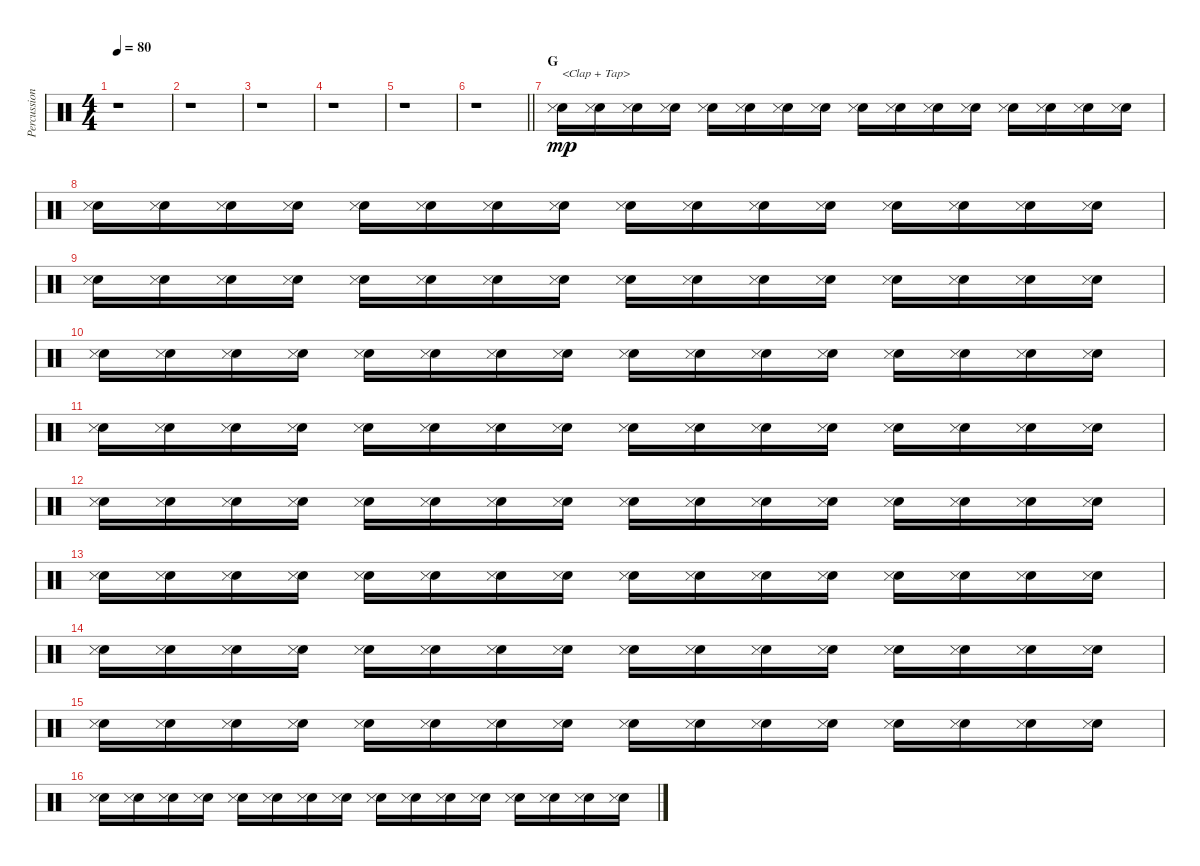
\track ("Percussion" "Percussion") {instrument percussion}
\staff {score}
\articulation defaults
\ts (4 4)
\tempo 80
\clef neutral
\ks c
r.1{dy mp} |
r.1 |
r.1 |
r.1 |
r.1 |
\barLineRight lightlight
r.1 |
\section ("" "G")
("Hand Clap (hit)" "Snare (side stick) 3").16{txt "<Clap + Tap>"} ("Hand Clap (hit)" "Snare (side stick) 3").16 ("Hand Clap (hit)" "Snare (side stick) 3").16 ("Hand Clap (hit)" "Snare (side stick) 3").16 ("Hand Clap (hit)" "Snare (side stick) 3").16 ("Hand Clap (hit)" "Snare (side stick) 3").16 ("Hand Clap (hit)" "Snare (side stick) 3").16 ("Hand Clap (hit)" "Snare (side stick) 3").16 ("Hand Clap (hit)" "Snare (side stick) 3").16 ("Hand Clap (hit)" "Snare (side stick) 3").16 ("Hand Clap (hit)" "Snare (side stick) 3").16 ("Hand Clap (hit)" "Snare (side stick) 3").16 ("Hand Clap (hit)" "Snare (side stick) 3").16 ("Hand Clap (hit)" "Snare (side stick) 3").16 ("Hand Clap (hit)" "Snare (side stick) 3").16 ("Hand Clap (hit)" "Snare (side stick) 3").16 |
("Hand Clap (hit)" "Snare (side stick) 3").16 ("Hand Clap (hit)" "Snare (side stick) 3").16 ("Hand Clap (hit)" "Snare (side stick) 3").16 ("Hand Clap (hit)" "Snare (side stick) 3").16 ("Hand Clap (hit)" "Snare (side stick) 3").16 ("Hand Clap (hit)" "Snare (side stick) 3").16 ("Hand Clap (hit)" "Snare (side stick) 3").16 ("Hand Clap (hit)" "Snare (side stick) 3").16 ("Hand Clap (hit)" "Snare (side stick) 3").16 ("Hand Clap (hit)" "Snare (side stick) 3").16 ("Hand Clap (hit)" "Snare (side stick) 3").16 ("Hand Clap (hit)" "Snare (side stick) 3").16 ("Hand Clap (hit)" "Snare (side stick) 3").16 ("Hand Clap (hit)" "Snare (side stick) 3").16 ("Hand Clap (hit)" "Snare (side stick) 3").16 ("Hand Clap (hit)" "Snare (side stick) 3").16 |
("Hand Clap (hit)" "Snare (side stick) 3").16 ("Hand Clap (hit)" "Snare (side stick) 3").16 ("Hand Clap (hit)" "Snare (side stick) 3").16 ("Hand Clap (hit)" "Snare (side stick) 3").16 ("Hand Clap (hit)" "Snare (side stick) 3").16 ("Hand Clap (hit)" "Snare (side stick) 3").16 ("Hand Clap (hit)" "Snare (side stick) 3").16 ("Hand Clap (hit)" "Snare (side stick) 3").16 ("Hand Clap (hit)" "Snare (side stick) 3").16 ("Hand Clap (hit)" "Snare (side stick) 3").16 ("Hand Clap (hit)" "Snare (side stick) 3").16 ("Hand Clap (hit)" "Snare (side stick) 3").16 ("Hand Clap (hit)" "Snare (side stick) 3").16 ("Hand Clap (hit)" "Snare (side stick) 3").16 ("Hand Clap (hit)" "Snare (side stick) 3").16 ("Hand Clap (hit)" "Snare (side stick) 3").16 |
("Hand Clap (hit)" "Snare (side stick) 3").16 ("Hand Clap (hit)" "Snare (side stick) 3").16 ("Hand Clap (hit)" "Snare (side stick) 3").16 ("Hand Clap (hit)" "Snare (side stick) 3").16 ("Hand Clap (hit)" "Snare (side stick) 3").16 ("Hand Clap (hit)" "Snare (side stick) 3").16 ("Hand Clap (hit)" "Snare (side stick) 3").16 ("Hand Clap (hit)" "Snare (side stick) 3").16 ("Hand Clap (hit)" "Snare (side stick) 3").16 ("Hand Clap (hit)" "Snare (side stick) 3").16 ("Hand Clap (hit)" "Snare (side stick) 3").16 ("Hand Clap (hit)" "Snare (side stick) 3").16 ("Hand Clap (hit)" "Snare (side stick) 3").16 ("Hand Clap (hit)" "Snare (side stick) 3").16 ("Hand Clap (hit)" "Snare (side stick) 3").16 ("Hand Clap (hit)" "Snare (side stick) 3").16 |
("Hand Clap (hit)" "Snare (side stick) 3").16 ("Hand Clap (hit)" "Snare (side stick) 3").16 ("Hand Clap (hit)" "Snare (side stick) 3").16 ("Hand Clap (hit)" "Snare (side stick) 3").16 ("Hand Clap (hit)" "Snare (side stick) 3").16 ("Hand Clap (hit)" "Snare (side stick) 3").16 ("Hand Clap (hit)" "Snare (side stick) 3").16 ("Hand Clap (hit)" "Snare (side stick) 3").16 ("Hand Clap (hit)" "Snare (side stick) 3").16 ("Hand Clap (hit)" "Snare (side stick) 3").16 ("Hand Clap (hit)" "Snare (side stick) 3").16 ("Hand Clap (hit)" "Snare (side stick) 3").16 ("Hand Clap (hit)" "Snare (side stick) 3").16 ("Hand Clap (hit)" "Snare (side stick) 3").16 ("Hand Clap (hit)" "Snare (side stick) 3").16 ("Hand Clap (hit)" "Snare (side stick) 3").16 |
("Hand Clap (hit)" "Snare (side stick) 3").16 ("Hand Clap (hit)" "Snare (side stick) 3").16 ("Hand Clap (hit)" "Snare (side stick) 3").16 ("Hand Clap (hit)" "Snare (side stick) 3").16 ("Hand Clap (hit)" "Snare (side stick) 3").16 ("Hand Clap (hit)" "Snare (side stick) 3").16 ("Hand Clap (hit)" "Snare (side stick) 3").16 ("Hand Clap (hit)" "Snare (side stick) 3").16 ("Hand Clap (hit)" "Snare (side stick) 3").16 ("Hand Clap (hit)" "Snare (side stick) 3").16 ("Hand Clap (hit)" "Snare (side stick) 3").16 ("Hand Clap (hit)" "Snare (side stick) 3").16 ("Hand Clap (hit)" "Snare (side stick) 3").16 ("Hand Clap (hit)" "Snare (side stick) 3").16 ("Hand Clap (hit)" "Snare (side stick) 3").16 ("Hand Clap (hit)" "Snare (side stick) 3").16 |
("Hand Clap (hit)" "Snare (side stick) 3").16 ("Hand Clap (hit)" "Snare (side stick) 3").16 ("Hand Clap (hit)" "Snare (side stick) 3").16 ("Hand Clap (hit)" "Snare (side stick) 3").16 ("Hand Clap (hit)" "Snare (side stick) 3").16 ("Hand Clap (hit)" "Snare (side stick) 3").16 ("Hand Clap (hit)" "Snare (side stick) 3").16 ("Hand Clap (hit)" "Snare (side stick) 3").16 ("Hand Clap (hit)" "Snare (side stick) 3").16 ("Hand Clap (hit)" "Snare (side stick) 3").16 ("Hand Clap (hit)" "Snare (side stick) 3").16 ("Hand Clap (hit)" "Snare (side stick) 3").16 ("Hand Clap (hit)" "Snare (side stick) 3").16 ("Hand Clap (hit)" "Snare (side stick) 3").16 ("Hand Clap (hit)" "Snare (side stick) 3").16 ("Hand Clap (hit)" "Snare (side stick) 3").16 |
("Hand Clap (hit)" "Snare (side stick) 3").16 ("Hand Clap (hit)" "Snare (side stick) 3").16 ("Hand Clap (hit)" "Snare (side stick) 3").16 ("Hand Clap (hit)" "Snare (side stick) 3").16 ("Hand Clap (hit)" "Snare (side stick) 3").16 ("Hand Clap (hit)" "Snare (side stick) 3").16 ("Hand Clap (hit)" "Snare (side stick) 3").16 ("Hand Clap (hit)" "Snare (side stick) 3").16 ("Hand Clap (hit)" "Snare (side stick) 3").16 ("Hand Clap (hit)" "Snare (side stick) 3").16 ("Hand Clap (hit)" "Snare (side stick) 3").16 ("Hand Clap (hit)" "Snare (side stick) 3").16 ("Hand Clap (hit)" "Snare (side stick) 3").16 ("Hand Clap (hit)" "Snare (side stick) 3").16 ("Hand Clap (hit)" "Snare (side stick) 3").16 ("Hand Clap (hit)" "Snare (side stick) 3").16 |
("Hand Clap (hit)" "Snare (side stick) 3").16 ("Hand Clap (hit)" "Snare (side stick) 3").16 ("Hand Clap (hit)" "Snare (side stick) 3").16 ("Hand Clap (hit)" "Snare (side stick) 3").16 ("Hand Clap (hit)" "Snare (side stick) 3").16 ("Hand Clap (hit)" "Snare (side stick) 3").16 ("Hand Clap (hit)" "Snare (side stick) 3").16 ("Hand Clap (hit)" "Snare (side stick) 3").16 ("Hand Clap (hit)" "Snare (side stick) 3").16 ("Hand Clap (hit)" "Snare (side stick) 3").16 ("Hand Clap (hit)" "Snare (side stick) 3").16 ("Hand Clap (hit)" "Snare (side stick) 3").16 ("Hand Clap (hit)" "Snare (side stick) 3").16 ("Hand Clap (hit)" "Snare (side stick) 3").16 ("Hand Clap (hit)" "Snare (side stick) 3").16 ("Hand Clap (hit)" "Snare (side stick) 3").16 |
("Hand Clap (hit)" "Snare (side stick) 3").16 ("Hand Clap (hit)" "Snare (side stick) 3").16 ("Hand Clap (hit)" "Snare (side stick) 3").16 ("Hand Clap (hit)" "Snare (side stick) 3").16 ("Hand Clap (hit)" "Snare (side stick) 3").16 ("Hand Clap (hit)" "Snare (side stick) 3").16 ("Hand Clap (hit)" "Snare (side stick) 3").16 ("Hand Clap (hit)" "Snare (side stick) 3").16 ("Hand Clap (hit)" "Snare (side stick) 3").16 ("Hand Clap (hit)" "Snare (side stick) 3").16 ("Hand Clap (hit)" "Snare (side stick) 3").16 ("Hand Clap (hit)" "Snare (side stick) 3").16 ("Hand Clap (hit)" "Snare (side stick) 3").16 ("Hand Clap (hit)" "Snare (side stick) 3").16 ("Hand Clap (hit)" "Snare (side stick) 3").16 ("Hand Clap (hit)" "Snare (side stick) 3").16
